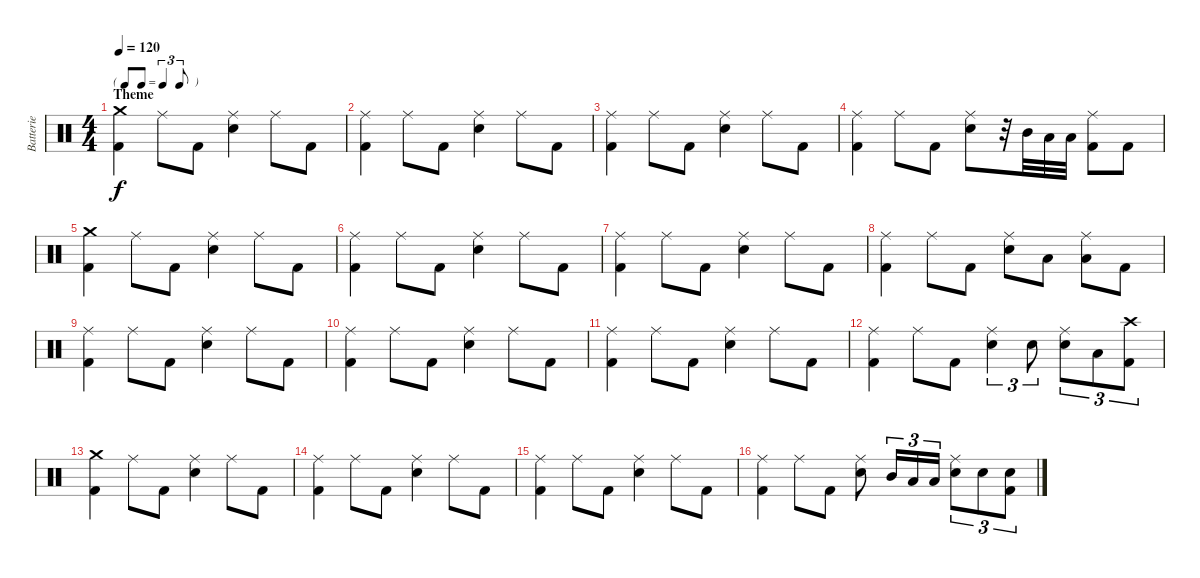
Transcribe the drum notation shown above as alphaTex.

\track ("Batterie" "Batterie") {instrument percussion}
\staff {score}
\articulation defaults
\ts (4 4)
\tf triplet8th
\section ("" "Theme")
\tempo 120
\clef neutral
\ks c
("Crash medium (hit)" "Kick (hit) 2").4{dy f} "Ride (middle)".8 "Kick (hit) 2".8 ("Ride (middle)" "Electric Snare (hit)").4 "Ride (middle)".8 "Kick (hit) 2".8 |
("Ride (middle)" "Kick (hit) 2").4 "Ride (middle)".8 "Kick (hit) 2".8 ("Ride (middle)" "Electric Snare (hit)").4 "Ride (middle)".8 "Kick (hit) 2".8 |
("Ride (middle)" "Kick (hit) 2").4 "Ride (middle)".8 "Kick (hit) 2".8 ("Ride (middle)" "Electric Snare (hit)").4 "Ride (middle)".8 "Kick (hit) 2".8 |
("Ride (middle)" "Kick (hit) 2").4 "Ride (middle)".8 "Kick (hit) 2".8 ("Ride (middle)" "Electric Snare (hit)").8 r.32 "Mid Tom (hit)".32 "Low Tom (hit)".32 "Low Tom (hit)".32 ("Ride (middle)" "Kick (hit) 2").8 "Kick (hit) 2".8 |
("Crash medium (hit)" "Kick (hit) 2").4 "Ride (middle)".8 "Kick (hit) 2".8 ("Ride (middle)" "Electric Snare (hit)").4 "Ride (middle)".8 "Kick (hit) 2".8 |
("Ride (middle)" "Kick (hit) 2").4 "Ride (middle)".8 "Kick (hit) 2".8 ("Ride (middle)" "Electric Snare (hit)").4 "Ride (middle)".8 "Kick (hit) 2".8 |
("Ride (middle)" "Kick (hit) 2").4 "Ride (middle)".8 "Kick (hit) 2".8 ("Ride (middle)" "Electric Snare (hit)").4 "Ride (middle)".8 "Kick (hit) 2".8 |
("Ride (middle)" "Kick (hit) 2").4 "Ride (middle)".8 "Kick (hit) 2".8 ("Ride (middle)" "Electric Snare (hit)").8 "Low Tom (hit)".8 ("Ride (middle)" "Low Tom (hit)").8 "Kick (hit) 2".8 |
("Ride (middle)" "Kick (hit) 2").4 "Ride (middle)".8 "Kick (hit) 2".8 ("Ride (middle)" "Electric Snare (hit)").4 "Ride (middle)".8 "Kick (hit) 2".8 |
("Ride (middle)" "Kick (hit) 2").4 "Ride (middle)".8 "Kick (hit) 2".8 ("Ride (middle)" "Electric Snare (hit)").4 "Ride (middle)".8 "Kick (hit) 2".8 |
("Ride (middle)" "Kick (hit) 2").4 "Ride (middle)".8 "Kick (hit) 2".8 ("Ride (middle)" "Electric Snare (hit)").4 "Ride (middle)".8 "Kick (hit) 2".8 |
("Ride (middle)" "Kick (hit) 2").4 "Ride (middle)".8 "Kick (hit) 2".8 ("Ride (middle)" "Electric Snare (hit)").4{tu (3 2)} "Electric Snare (hit)".8{tu (3 2)} ("Ride (middle)" "Electric Snare (hit)").8{tu (3 2)} "Low Tom (hit)".8{tu (3 2)} ("Crash high (hit)" "Kick (hit) 2").8{tu (3 2)} |
("Crash medium (hit)" "Kick (hit) 2").4 "Ride (middle)".8 "Kick (hit) 2".8 ("Ride (middle)" "Electric Snare (hit)").4 "Ride (middle)".8 "Kick (hit) 2".8 |
("Ride (middle)" "Kick (hit) 2").4 "Ride (middle)".8 "Kick (hit) 2".8 ("Ride (middle)" "Electric Snare (hit)").4 "Ride (middle)".8 "Kick (hit) 2".8 |
("Ride (middle)" "Kick (hit) 2").4 "Ride (middle)".8 "Kick (hit) 2".8 ("Ride (middle)" "Electric Snare (hit)").4 "Ride (middle)".8 "Kick (hit) 2".8 |
("Ride (middle)" "Kick (hit) 2").4 "Ride (middle)".8 "Kick (hit) 2".8 ("Ride (middle)" "Electric Snare (hit)").8 "Mid Tom (hit)".16{tu (3 2)} "Low Tom (hit)".16{tu (3 2)} "Low Tom (hit)".16{tu (3 2)} ("Ride (middle)" "Electric Snare (hit)").8{tu (3 2)} "Electric Snare (hit)".8{tu (3 2)} ("Electric Snare (hit)" "Kick (hit) 2").8{tu (3 2)}
